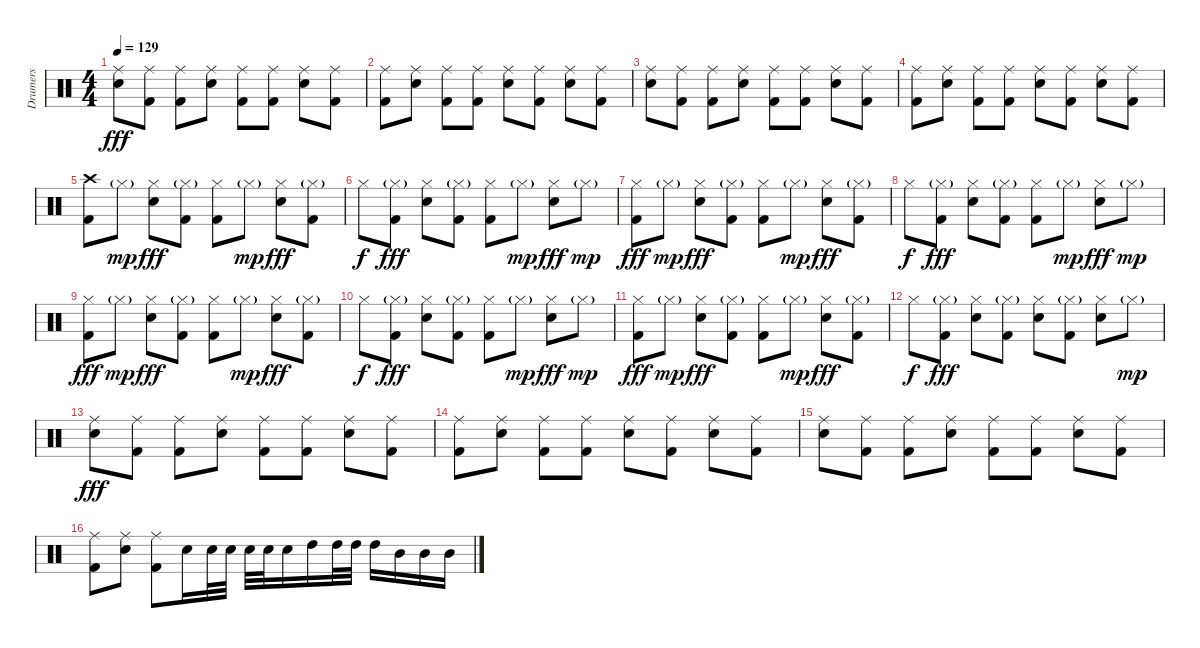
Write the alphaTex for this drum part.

\track ("Drumers" "Drumers") {instrument percussion}
\staff {score}
\articulation defaults
\ts (4 4)
\tempo 129
\clef neutral
\ks c
("Ride (middle)" "Electric Snare (hit)").8{dy fff} ("Ride (middle)" "Kick (hit) 2").8 ("Ride (middle)" "Kick (hit) 2").8 ("Ride (middle)" "Electric Snare (hit)").8 ("Ride (middle)" "Kick (hit) 2").8 ("Ride (middle)" "Kick (hit) 2").8 ("Ride (middle)" "Electric Snare (hit)").8 ("Ride (middle)" "Kick (hit) 2").8 |
("Ride (middle)" "Kick (hit) 2").8 ("Ride (middle)" "Electric Snare (hit)").8 ("Ride (middle)" "Kick (hit) 2").8 ("Ride (middle)" "Kick (hit) 2").8 ("Ride (middle)" "Electric Snare (hit)").8 ("Ride (middle)" "Kick (hit) 2").8 ("Ride (middle)" "Electric Snare (hit)").8 ("Ride (middle)" "Kick (hit) 2").8 |
("Ride (middle)" "Electric Snare (hit)").8 ("Ride (middle)" "Kick (hit) 2").8 ("Ride (middle)" "Kick (hit) 2").8 ("Ride (middle)" "Electric Snare (hit)").8 ("Ride (middle)" "Kick (hit) 2").8 ("Ride (middle)" "Kick (hit) 2").8 ("Ride (middle)" "Electric Snare (hit)").8 ("Ride (middle)" "Kick (hit) 2").8 |
("Ride (middle)" "Kick (hit) 2").8 ("Ride (middle)" "Electric Snare (hit)").8 ("Ride (middle)" "Kick (hit) 2").8 ("Ride (middle)" "Kick (hit) 2").8 ("Ride (middle)" "Electric Snare (hit)").8 ("Ride (middle)" "Kick (hit) 2").8 ("Ride (middle)" "Electric Snare (hit)").8 ("Ride (middle)" "Kick (hit) 2").8 |
("Crash high (hit)" "Kick (hit) 2").8 "Hi-Hat (closed)"{g}.8{dy mp} ("Hi-Hat (closed)" "Electric Snare (hit)").8{dy fff} ("Hi-Hat (closed)"{g} "Kick (hit) 2").8 ("Hi-Hat (closed)" "Kick (hit) 2").8 "Hi-Hat (closed)"{g}.8{dy mp} ("Hi-Hat (closed)" "Electric Snare (hit)").8{dy fff} ("Hi-Hat (closed)"{g} "Kick (hit) 2").8 |
"Hi-Hat (closed)".8{dy f} ("Hi-Hat (closed)"{g} "Kick (hit) 2").8{dy fff} ("Hi-Hat (closed)" "Electric Snare (hit)").8 ("Hi-Hat (closed)"{g} "Kick (hit) 2").8 ("Hi-Hat (closed)" "Kick (hit) 2").8 "Hi-Hat (closed)"{g}.8{dy mp} ("Hi-Hat (closed)" "Electric Snare (hit)").8{dy fff} "Hi-Hat (closed)"{g}.8{dy mp} |
("Hi-Hat (closed)" "Kick (hit) 2").8{dy fff} "Hi-Hat (closed)"{g}.8{dy mp} ("Hi-Hat (closed)" "Electric Snare (hit)").8{dy fff} ("Hi-Hat (closed)"{g} "Kick (hit) 2").8 ("Hi-Hat (closed)" "Kick (hit) 2").8 "Hi-Hat (closed)"{g}.8{dy mp} ("Hi-Hat (closed)" "Electric Snare (hit)").8{dy fff} ("Hi-Hat (closed)"{g} "Kick (hit) 2").8 |
"Hi-Hat (closed)".8{dy f} ("Hi-Hat (closed)"{g} "Kick (hit) 2").8{dy fff} ("Hi-Hat (closed)" "Electric Snare (hit)").8 ("Hi-Hat (closed)"{g} "Kick (hit) 2").8 ("Hi-Hat (closed)" "Kick (hit) 2").8 "Hi-Hat (closed)"{g}.8{dy mp} ("Hi-Hat (closed)" "Electric Snare (hit)").8{dy fff} "Hi-Hat (closed)"{g}.8{dy mp} |
("Hi-Hat (closed)" "Kick (hit) 2").8{dy fff} "Hi-Hat (closed)"{g}.8{dy mp} ("Hi-Hat (closed)" "Electric Snare (hit)").8{dy fff} ("Hi-Hat (closed)"{g} "Kick (hit) 2").8 ("Hi-Hat (closed)" "Kick (hit) 2").8 "Hi-Hat (closed)"{g}.8{dy mp} ("Hi-Hat (closed)" "Electric Snare (hit)").8{dy fff} ("Hi-Hat (closed)"{g} "Kick (hit) 2").8 |
"Hi-Hat (closed)".8{dy f} ("Hi-Hat (closed)"{g} "Kick (hit) 2").8{dy fff} ("Hi-Hat (closed)" "Electric Snare (hit)").8 ("Hi-Hat (closed)"{g} "Kick (hit) 2").8 ("Hi-Hat (closed)" "Kick (hit) 2").8 "Hi-Hat (closed)"{g}.8{dy mp} ("Hi-Hat (closed)" "Electric Snare (hit)").8{dy fff} "Hi-Hat (closed)"{g}.8{dy mp} |
("Hi-Hat (closed)" "Kick (hit) 2").8{dy fff} "Hi-Hat (closed)"{g}.8{dy mp} ("Hi-Hat (closed)" "Electric Snare (hit)").8{dy fff} ("Hi-Hat (closed)"{g} "Kick (hit) 2").8 ("Hi-Hat (closed)" "Kick (hit) 2").8 "Hi-Hat (closed)"{g}.8{dy mp} ("Hi-Hat (closed)" "Electric Snare (hit)").8{dy fff} ("Hi-Hat (closed)"{g} "Kick (hit) 2").8 |
"Hi-Hat (closed)".8{dy f} ("Hi-Hat (closed)"{g} "Kick (hit) 2").8{dy fff} ("Hi-Hat (closed)" "Electric Snare (hit)").8 ("Hi-Hat (closed)"{g} "Kick (hit) 2").8 ("Hi-Hat (closed)" "Electric Snare (hit)").8 ("Hi-Hat (closed)"{g} "Kick (hit) 2").8 ("Hi-Hat (closed)" "Electric Snare (hit)").8 "Hi-Hat (closed)"{g}.8{dy mp} |
("Ride (middle)" "Electric Snare (hit)").8{dy fff} ("Ride (middle)" "Kick (hit) 2").8 ("Ride (middle)" "Kick (hit) 2").8 ("Ride (middle)" "Electric Snare (hit)").8 ("Ride (middle)" "Kick (hit) 2").8 ("Ride (middle)" "Kick (hit) 2").8 ("Ride (middle)" "Electric Snare (hit)").8 ("Ride (middle)" "Kick (hit) 2").8 |
("Ride (middle)" "Kick (hit) 2").8 ("Ride (middle)" "Electric Snare (hit)").8 ("Ride (middle)" "Kick (hit) 2").8 ("Ride (middle)" "Kick (hit) 2").8 ("Ride (middle)" "Electric Snare (hit)").8 ("Ride (middle)" "Kick (hit) 2").8 ("Ride (middle)" "Electric Snare (hit)").8 ("Ride (middle)" "Kick (hit) 2").8 |
("Ride (middle)" "Electric Snare (hit)").8 ("Ride (middle)" "Kick (hit) 2").8 ("Ride (middle)" "Kick (hit) 2").8 ("Ride (middle)" "Electric Snare (hit)").8 ("Ride (middle)" "Kick (hit) 2").8 ("Ride (middle)" "Kick (hit) 2").8 ("Ride (middle)" "Electric Snare (hit)").8 ("Ride (middle)" "Kick (hit) 2").8 |
("Ride (middle)" "Kick (hit) 2").8 ("Ride (middle)" "Electric Snare (hit)").8 ("Ride (middle)" "Kick (hit) 2").8 "Electric Snare (hit)".16 "Electric Snare (hit)".32 "Electric Snare (hit)".32 "Electric Snare (hit)".32 "Electric Snare (hit)".32 "Electric Snare (hit)".16 "High Tom (hit)".16 "High Tom (hit)".32 "High Tom (hit)".32 "High Tom (hit)".16 "Mid Tom (hit)".16 "Mid Tom (hit)".16 "Mid Tom (hit)".16
